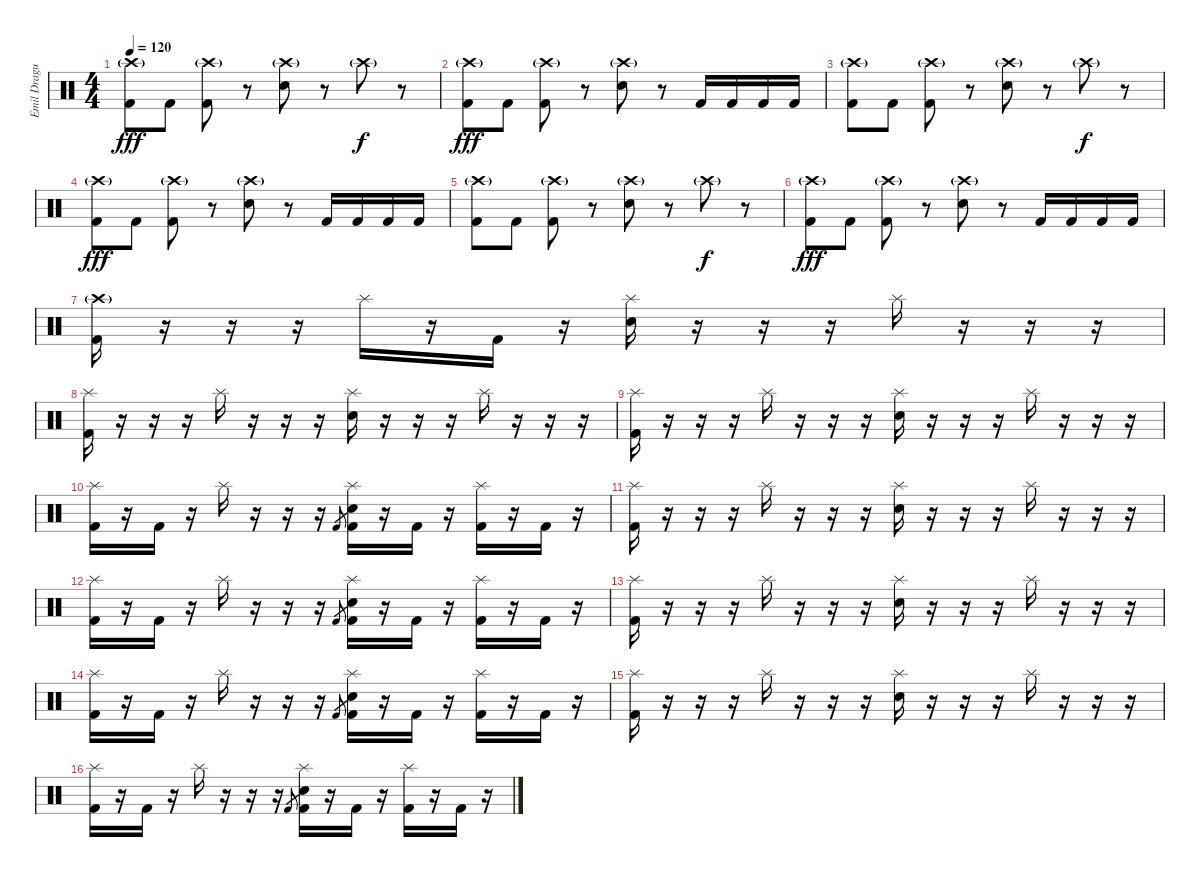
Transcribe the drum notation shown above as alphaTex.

\track ("Emil Dragutinovic" "Emil Dragu") {instrument percussion}
\staff {score}
\articulation defaults
\ts (4 4)
\tempo 120
\clef neutral
\ks c
("Crash high (hit)"{g} "Kick (hit) 2").8{dy fff} "Kick (hit) 2".8 ("Crash high (hit)"{g} "Kick (hit) 2").8 r.8 ("Crash high (hit)"{g} "Electric Snare (hit)").8 r.8 "Crash high (hit)"{g}.8{dy f} r.8 |
("Crash high (hit)"{g} "Kick (hit) 2").8{dy fff} "Kick (hit) 2".8 ("Crash high (hit)"{g} "Kick (hit) 2").8 r.8 ("Crash high (hit)"{g} "Electric Snare (hit)").8 r.8 "Kick (hit) 2".16 "Kick (hit) 2".16 "Kick (hit) 2".16 "Kick (hit) 2".16 |
("Crash high (hit)"{g} "Kick (hit) 2").8 "Kick (hit) 2".8 ("Crash high (hit)"{g} "Kick (hit) 2").8 r.8 ("Crash high (hit)"{g} "Electric Snare (hit)").8 r.8 "Crash high (hit)"{g}.8{dy f} r.8 |
("Crash high (hit)"{g} "Kick (hit) 2").8{dy fff} "Kick (hit) 2".8 ("Crash high (hit)"{g} "Kick (hit) 2").8 r.8 ("Crash high (hit)"{g} "Electric Snare (hit)").8 r.8 "Kick (hit) 2".16 "Kick (hit) 2".16 "Kick (hit) 2".16 "Kick (hit) 2".16 |
("Crash high (hit)"{g} "Kick (hit) 2").8 "Kick (hit) 2".8 ("Crash high (hit)"{g} "Kick (hit) 2").8 r.8 ("Crash high (hit)"{g} "Electric Snare (hit)").8 r.8 "Crash high (hit)"{g}.8{dy f} r.8 |
("Crash high (hit)"{g} "Kick (hit) 2").8{dy fff} "Kick (hit) 2".8 ("Crash high (hit)"{g} "Kick (hit) 2").8 r.8 ("Crash high (hit)"{g} "Electric Snare (hit)").8 r.8 "Kick (hit) 2".16 "Kick (hit) 2".16 "Kick (hit) 2".16 "Kick (hit) 2".16 |
("Crash high (hit)"{g} "Kick (hit) 2").16 r.16 r.16 r.16 "Splash (hit)".16 r.16 "Kick (hit) 2".16 r.16 ("Splash (hit)" "Electric Snare (hit)").16 r.16 r.16 r.16 "Splash (hit)".16 r.16 r.16 r.16 |
("Splash (hit)" "Kick (hit) 2").16 r.16 r.16 r.16 "Splash (hit)".16 r.16 r.16 r.16 ("Splash (hit)" "Electric Snare (hit)").16 r.16 r.16 r.16 "Splash (hit)".16 r.16 r.16 r.16 |
("Splash (hit)" "Kick (hit) 2").16 r.16 r.16 r.16 "Splash (hit)".16 r.16 r.16 r.16 ("Splash (hit)" "Electric Snare (hit)").16 r.16 r.16 r.16 "Splash (hit)".16 r.16 r.16 r.16 |
("Splash (hit)" "Kick (hit) 2").16 r.16 "Kick (hit) 2".16 r.16 "Splash (hit)".16 r.16 r.16 r.16 "Kick (hit) 2".8{gr} ("Splash (hit)" "Electric Snare (hit)" "Kick (hit) 2").16 r.16 "Kick (hit) 2".16 r.16 ("Splash (hit)" "Kick (hit) 2").16 r.16 "Kick (hit) 2".16 r.16 |
("Splash (hit)" "Kick (hit) 2").16 r.16 r.16 r.16 "Splash (hit)".16 r.16 r.16 r.16 ("Splash (hit)" "Electric Snare (hit)").16 r.16 r.16 r.16 "Splash (hit)".16 r.16 r.16 r.16 |
("Splash (hit)" "Kick (hit) 2").16 r.16 "Kick (hit) 2".16 r.16 "Splash (hit)".16 r.16 r.16 r.16 "Kick (hit) 2".8{gr} ("Splash (hit)" "Electric Snare (hit)" "Kick (hit) 2").16 r.16 "Kick (hit) 2".16 r.16 ("Splash (hit)" "Kick (hit) 2").16 r.16 "Kick (hit) 2".16 r.16 |
("Splash (hit)" "Kick (hit) 2").16 r.16 r.16 r.16 "Splash (hit)".16 r.16 r.16 r.16 ("Splash (hit)" "Electric Snare (hit)").16 r.16 r.16 r.16 "Splash (hit)".16 r.16 r.16 r.16 |
("Splash (hit)" "Kick (hit) 2").16 r.16 "Kick (hit) 2".16 r.16 "Splash (hit)".16 r.16 r.16 r.16 "Kick (hit) 2".8{gr} ("Splash (hit)" "Electric Snare (hit)" "Kick (hit) 2").16 r.16 "Kick (hit) 2".16 r.16 ("Splash (hit)" "Kick (hit) 2").16 r.16 "Kick (hit) 2".16 r.16 |
("Splash (hit)" "Kick (hit) 2").16 r.16 r.16 r.16 "Splash (hit)".16 r.16 r.16 r.16 ("Splash (hit)" "Electric Snare (hit)").16 r.16 r.16 r.16 "Splash (hit)".16 r.16 r.16 r.16 |
("Splash (hit)" "Kick (hit) 2").16 r.16 "Kick (hit) 2".16 r.16 "Splash (hit)".16 r.16 r.16 r.16 "Kick (hit) 2".8{gr} ("Splash (hit)" "Electric Snare (hit)" "Kick (hit) 2").16 r.16 "Kick (hit) 2".16 r.16 ("Splash (hit)" "Kick (hit) 2").16 r.16 "Kick (hit) 2".16 r.16
